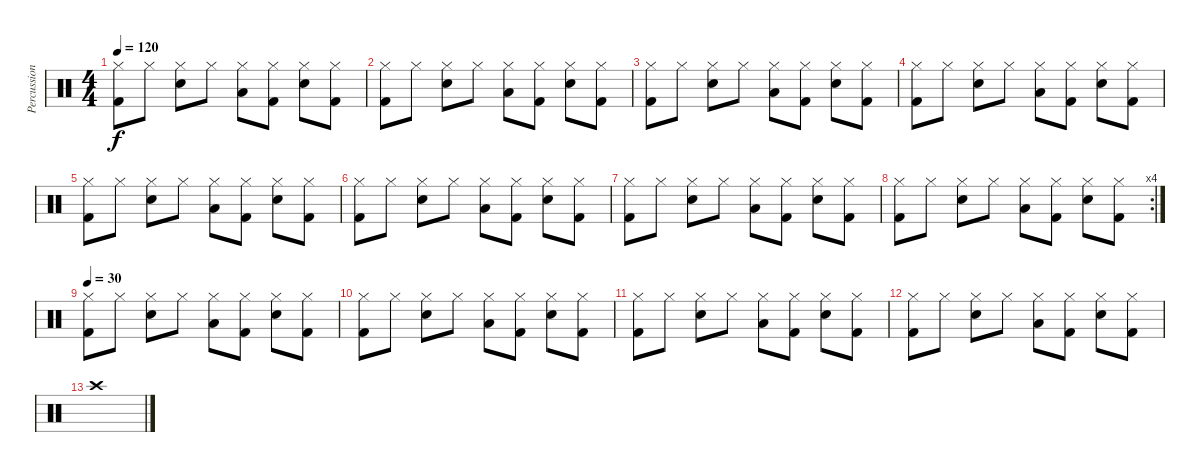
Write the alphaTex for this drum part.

\track ("Percussions" "Percussion") {instrument percussion}
\staff {score}
\articulation defaults
\ts (4 4)
\tempo 120
\clef neutral
\ks c
("Hi-Hat (closed)" "Kick (hit) 2").8{dy f} "Hi-Hat (closed)".8 ("Hi-Hat (closed)" "Snare (hit) 2").8 "Hi-Hat (closed)".8 ("Hi-Hat (closed)" "Low Tom (hit)").8 ("Hi-Hat (closed)" "Kick (hit) 2").8 ("Hi-Hat (closed)" "Snare (hit) 2").8 ("Hi-Hat (closed)" "Kick (hit) 2").8 |
("Hi-Hat (closed)" "Kick (hit) 2").8 "Hi-Hat (closed)".8 ("Hi-Hat (closed)" "Snare (hit) 2").8 "Hi-Hat (closed)".8 ("Hi-Hat (closed)" "Low Tom (hit)").8 ("Hi-Hat (closed)" "Kick (hit) 2").8 ("Hi-Hat (closed)" "Snare (hit) 2").8 ("Hi-Hat (closed)" "Kick (hit) 2").8 |
("Hi-Hat (closed)" "Kick (hit) 2").8 "Hi-Hat (closed)".8 ("Hi-Hat (closed)" "Snare (hit) 2").8 "Hi-Hat (closed)".8 ("Hi-Hat (closed)" "Low Tom (hit)").8 ("Hi-Hat (closed)" "Kick (hit) 2").8 ("Hi-Hat (closed)" "Snare (hit) 2").8 ("Hi-Hat (closed)" "Kick (hit) 2").8 |
("Hi-Hat (closed)" "Kick (hit) 2").8 "Hi-Hat (closed)".8 ("Hi-Hat (closed)" "Snare (hit) 2").8 "Hi-Hat (closed)".8 ("Hi-Hat (closed)" "Low Tom (hit)").8 ("Hi-Hat (closed)" "Kick (hit) 2").8 ("Hi-Hat (closed)" "Snare (hit) 2").8 ("Hi-Hat (closed)" "Kick (hit) 2").8 |
("Hi-Hat (closed)" "Kick (hit) 2").8 "Hi-Hat (closed)".8 ("Hi-Hat (closed)" "Snare (hit) 2").8 "Hi-Hat (closed)".8 ("Hi-Hat (closed)" "Low Tom (hit)").8 ("Hi-Hat (closed)" "Kick (hit) 2").8 ("Hi-Hat (closed)" "Snare (hit) 2").8 ("Hi-Hat (closed)" "Kick (hit) 2").8 |
("Hi-Hat (closed)" "Kick (hit) 2").8 "Hi-Hat (closed)".8 ("Hi-Hat (closed)" "Snare (hit) 2").8 "Hi-Hat (closed)".8 ("Hi-Hat (closed)" "Low Tom (hit)").8 ("Hi-Hat (closed)" "Kick (hit) 2").8 ("Hi-Hat (closed)" "Snare (hit) 2").8 ("Hi-Hat (closed)" "Kick (hit) 2").8 |
("Hi-Hat (closed)" "Kick (hit) 2").8 "Hi-Hat (closed)".8 ("Hi-Hat (closed)" "Snare (hit) 2").8 "Hi-Hat (closed)".8 ("Hi-Hat (closed)" "Low Tom (hit)").8 ("Hi-Hat (closed)" "Kick (hit) 2").8 ("Hi-Hat (closed)" "Snare (hit) 2").8 ("Hi-Hat (closed)" "Kick (hit) 2").8 |
\rc 4
("Hi-Hat (closed)" "Kick (hit) 2").8 "Hi-Hat (closed)".8 ("Hi-Hat (closed)" "Snare (hit) 2").8 "Hi-Hat (closed)".8 ("Hi-Hat (closed)" "Low Tom (hit)").8 ("Hi-Hat (closed)" "Kick (hit) 2").8 ("Hi-Hat (closed)" "Snare (hit) 2").8 ("Hi-Hat (closed)" "Kick (hit) 2").8 |
\tempo 30
("Hi-Hat (closed)" "Kick (hit) 2").8 "Hi-Hat (closed)".8 ("Hi-Hat (closed)" "Snare (hit) 2").8 "Hi-Hat (closed)".8 ("Hi-Hat (closed)" "Low Tom (hit)").8 ("Hi-Hat (closed)" "Kick (hit) 2").8 ("Hi-Hat (closed)" "Snare (hit) 2").8 ("Hi-Hat (closed)" "Kick (hit) 2").8 |
("Hi-Hat (closed)" "Kick (hit) 2").8 "Hi-Hat (closed)".8 ("Hi-Hat (closed)" "Snare (hit) 2").8 "Hi-Hat (closed)".8 ("Hi-Hat (closed)" "Low Tom (hit)").8 ("Hi-Hat (closed)" "Kick (hit) 2").8 ("Hi-Hat (closed)" "Snare (hit) 2").8 ("Hi-Hat (closed)" "Kick (hit) 2").8 |
("Hi-Hat (closed)" "Kick (hit) 2").8 "Hi-Hat (closed)".8 ("Hi-Hat (closed)" "Snare (hit) 2").8 "Hi-Hat (closed)".8 ("Hi-Hat (closed)" "Low Tom (hit)").8 ("Hi-Hat (closed)" "Kick (hit) 2").8 ("Hi-Hat (closed)" "Snare (hit) 2").8 ("Hi-Hat (closed)" "Kick (hit) 2").8 |
("Hi-Hat (closed)" "Kick (hit) 2").8 "Hi-Hat (closed)".8 ("Hi-Hat (closed)" "Snare (hit) 2").8 "Hi-Hat (closed)".8 ("Hi-Hat (closed)" "Low Tom (hit)").8 ("Hi-Hat (closed)" "Kick (hit) 2").8 ("Hi-Hat (closed)" "Snare (hit) 2").8 ("Hi-Hat (closed)" "Kick (hit) 2").8 |
"Crash high (hit)".1
